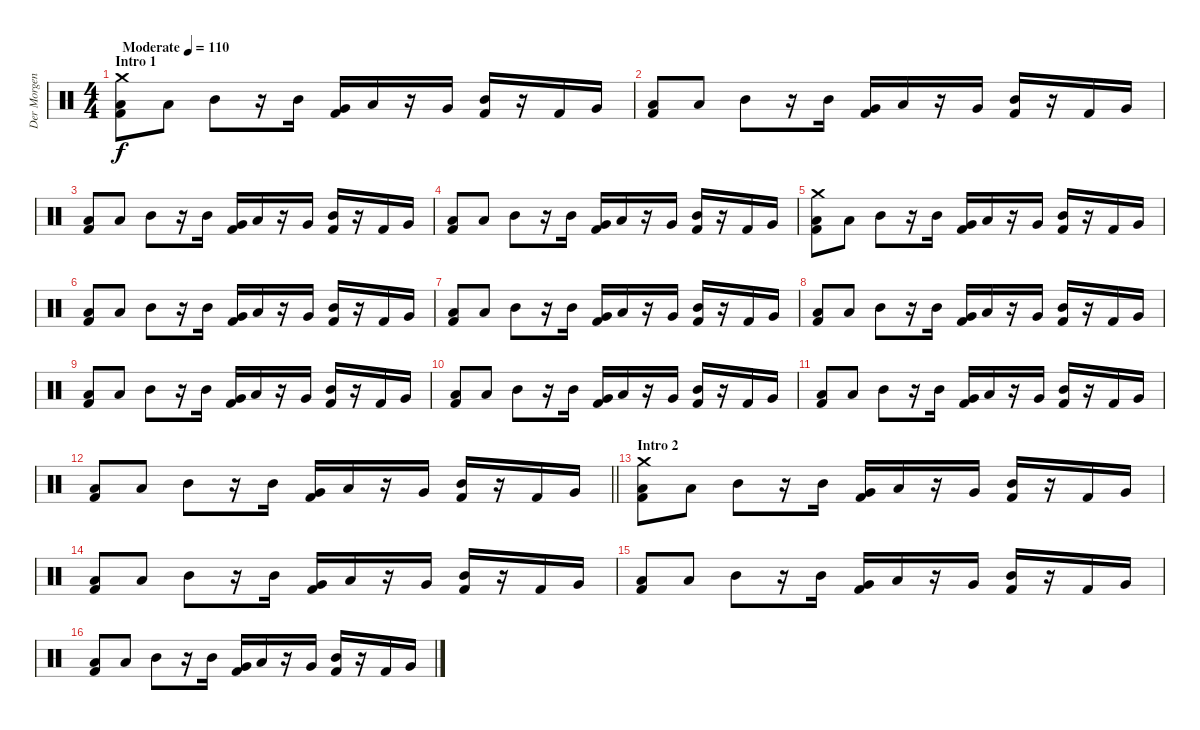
\track ("Der Morgenstern" "Der Morgen") {instrument percussion}
\staff {score}
\articulation defaults
\ts (4 4)
\section ("" "Intro 1")
\tempo (110 "Moderate")
\clef neutral
\ks c
("Low Floor Tom (hit)" "Kick (hit) 2" "Crash medium (hit)").8{dy f} "Low Floor Tom (hit)".8 "Mid Tom (hit)".8 r.16 "Mid Tom (hit)".16 ("Very Low Tom (hit)" "Kick (hit) 2").16 "Low Tom (hit)".16 r.16 "Very Low Tom (hit)".16 ("Mid Tom (hit)" "Kick (hit) 2").16 r.16 "Kick (hit) 2".16 "Very Low Tom (hit)".16 |
("Low Floor Tom (hit)" "Kick (hit) 2").8 "Low Floor Tom (hit)".8 "Mid Tom (hit)".8 r.16 "Mid Tom (hit)".16 ("Very Low Tom (hit)" "Kick (hit) 2").16 "Low Tom (hit)".16 r.16 "Very Low Tom (hit)".16 ("Mid Tom (hit)" "Kick (hit) 2").16 r.16 "Kick (hit) 2".16 "Very Low Tom (hit)".16 |
("Low Floor Tom (hit)" "Kick (hit) 2").8 "Low Floor Tom (hit)".8 "Mid Tom (hit)".8 r.16 "Mid Tom (hit)".16 ("Very Low Tom (hit)" "Kick (hit) 2").16 "Low Tom (hit)".16 r.16 "Very Low Tom (hit)".16 ("Mid Tom (hit)" "Kick (hit) 2").16 r.16 "Kick (hit) 2".16 "Very Low Tom (hit)".16 |
("Low Floor Tom (hit)" "Kick (hit) 2").8 "Low Floor Tom (hit)".8 "Mid Tom (hit)".8 r.16 "Mid Tom (hit)".16 ("Very Low Tom (hit)" "Kick (hit) 2").16 "Low Tom (hit)".16 r.16 "Very Low Tom (hit)".16 ("Mid Tom (hit)" "Kick (hit) 2").16 r.16 "Kick (hit) 2".16 "Very Low Tom (hit)".16 |
("Low Floor Tom (hit)" "Kick (hit) 2" "Crash medium (hit)").8 "Low Floor Tom (hit)".8 "Mid Tom (hit)".8 r.16 "Mid Tom (hit)".16 ("Very Low Tom (hit)" "Kick (hit) 2").16 "Low Tom (hit)".16 r.16 "Very Low Tom (hit)".16 ("Mid Tom (hit)" "Kick (hit) 2").16 r.16 "Kick (hit) 2".16 "Very Low Tom (hit)".16 |
("Low Floor Tom (hit)" "Kick (hit) 2").8 "Low Floor Tom (hit)".8 "Mid Tom (hit)".8 r.16 "Mid Tom (hit)".16 ("Very Low Tom (hit)" "Kick (hit) 2").16 "Low Tom (hit)".16 r.16 "Very Low Tom (hit)".16 ("Mid Tom (hit)" "Kick (hit) 2").16 r.16 "Kick (hit) 2".16 "Very Low Tom (hit)".16 |
("Low Floor Tom (hit)" "Kick (hit) 2").8 "Low Floor Tom (hit)".8 "Mid Tom (hit)".8 r.16 "Mid Tom (hit)".16 ("Very Low Tom (hit)" "Kick (hit) 2").16 "Low Tom (hit)".16 r.16 "Very Low Tom (hit)".16 ("Mid Tom (hit)" "Kick (hit) 2").16 r.16 "Kick (hit) 2".16 "Very Low Tom (hit)".16 |
("Low Floor Tom (hit)" "Kick (hit) 2").8 "Low Floor Tom (hit)".8 "Mid Tom (hit)".8 r.16 "Mid Tom (hit)".16 ("Very Low Tom (hit)" "Kick (hit) 2").16 "Low Tom (hit)".16 r.16 "Very Low Tom (hit)".16 ("Mid Tom (hit)" "Kick (hit) 2").16 r.16 "Kick (hit) 2".16 "Very Low Tom (hit)".16 |
("Low Floor Tom (hit)" "Kick (hit) 2").8 "Low Floor Tom (hit)".8 "Mid Tom (hit)".8 r.16 "Mid Tom (hit)".16 ("Very Low Tom (hit)" "Kick (hit) 2").16 "Low Tom (hit)".16 r.16 "Very Low Tom (hit)".16 ("Mid Tom (hit)" "Kick (hit) 2").16 r.16 "Kick (hit) 2".16 "Very Low Tom (hit)".16 |
("Low Floor Tom (hit)" "Kick (hit) 2").8 "Low Floor Tom (hit)".8 "Mid Tom (hit)".8 r.16 "Mid Tom (hit)".16 ("Very Low Tom (hit)" "Kick (hit) 2").16 "Low Tom (hit)".16 r.16 "Very Low Tom (hit)".16 ("Mid Tom (hit)" "Kick (hit) 2").16 r.16 "Kick (hit) 2".16 "Very Low Tom (hit)".16 |
("Low Floor Tom (hit)" "Kick (hit) 2").8 "Low Floor Tom (hit)".8 "Mid Tom (hit)".8 r.16 "Mid Tom (hit)".16 ("Very Low Tom (hit)" "Kick (hit) 2").16 "Low Tom (hit)".16 r.16 "Very Low Tom (hit)".16 ("Mid Tom (hit)" "Kick (hit) 2").16 r.16 "Kick (hit) 2".16 "Very Low Tom (hit)".16 |
\barLineRight lightlight
("Low Floor Tom (hit)" "Kick (hit) 2").8 "Low Floor Tom (hit)".8 "Mid Tom (hit)".8 r.16 "Mid Tom (hit)".16 ("Very Low Tom (hit)" "Kick (hit) 2").16 "Low Tom (hit)".16 r.16 "Very Low Tom (hit)".16 ("Mid Tom (hit)" "Kick (hit) 2").16 r.16 "Kick (hit) 2".16 "Very Low Tom (hit)".16 |
\section ("" "Intro 2")
("Low Floor Tom (hit)" "Kick (hit) 2" "Crash medium (hit)").8 "Low Floor Tom (hit)".8 "Mid Tom (hit)".8 r.16 "Mid Tom (hit)".16 ("Very Low Tom (hit)" "Kick (hit) 2").16 "Low Tom (hit)".16 r.16 "Very Low Tom (hit)".16 ("Mid Tom (hit)" "Kick (hit) 2").16 r.16 "Kick (hit) 2".16 "Very Low Tom (hit)".16 |
("Low Floor Tom (hit)" "Kick (hit) 2").8 "Low Floor Tom (hit)".8 "Mid Tom (hit)".8 r.16 "Mid Tom (hit)".16 ("Very Low Tom (hit)" "Kick (hit) 2").16 "Low Tom (hit)".16 r.16 "Very Low Tom (hit)".16 ("Mid Tom (hit)" "Kick (hit) 2").16 r.16 "Kick (hit) 2".16 "Very Low Tom (hit)".16 |
("Low Floor Tom (hit)" "Kick (hit) 2").8 "Low Floor Tom (hit)".8 "Mid Tom (hit)".8 r.16 "Mid Tom (hit)".16 ("Very Low Tom (hit)" "Kick (hit) 2").16 "Low Tom (hit)".16 r.16 "Very Low Tom (hit)".16 ("Mid Tom (hit)" "Kick (hit) 2").16 r.16 "Kick (hit) 2".16 "Very Low Tom (hit)".16 |
("Low Floor Tom (hit)" "Kick (hit) 2").8 "Low Floor Tom (hit)".8 "Mid Tom (hit)".8 r.16 "Mid Tom (hit)".16 ("Very Low Tom (hit)" "Kick (hit) 2").16 "Low Tom (hit)".16 r.16 "Very Low Tom (hit)".16 ("Mid Tom (hit)" "Kick (hit) 2").16 r.16 "Kick (hit) 2".16 "Very Low Tom (hit)".16
